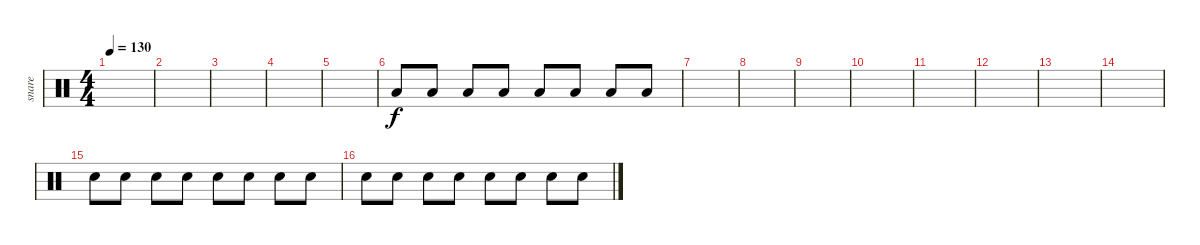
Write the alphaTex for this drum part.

\track ("snare" "snare") {instrument percussion}
\staff {score}
\articulation defaults
\ts (4 4)
\tempo 130
\clef neutral
\ks c
|
|
|
|
|
"Low Floor Tom (hit)"{x}.8 "Low Floor Tom (hit)"{x}.8 "Low Floor Tom (hit)"{x}.8 "Low Floor Tom (hit)"{x}.8 "Low Floor Tom (hit)".8 "Low Floor Tom (hit)".8 "Low Floor Tom (hit)".8 "Low Floor Tom (hit)".8 |
|
|
|
|
|
|
|
|
"Snare (hit)"{x}.8 "Snare (hit)"{x}.8 "Snare (hit) 2".8 "Snare (hit)"{x}.8 "Snare (hit)"{x}.8 "Snare (hit) 2".8 "Snare (hit)"{x}.8 "Snare (hit) 2".8 |
"Snare (hit)"{x}.8 "Snare (hit)"{x}.8 "Snare (hit) 2".8 "Snare (hit)"{x}.8 "Snare (hit)"{x}.8 "Snare (hit) 2".8 "Snare (hit)"{x}.8 "Snare (hit) 2".8
